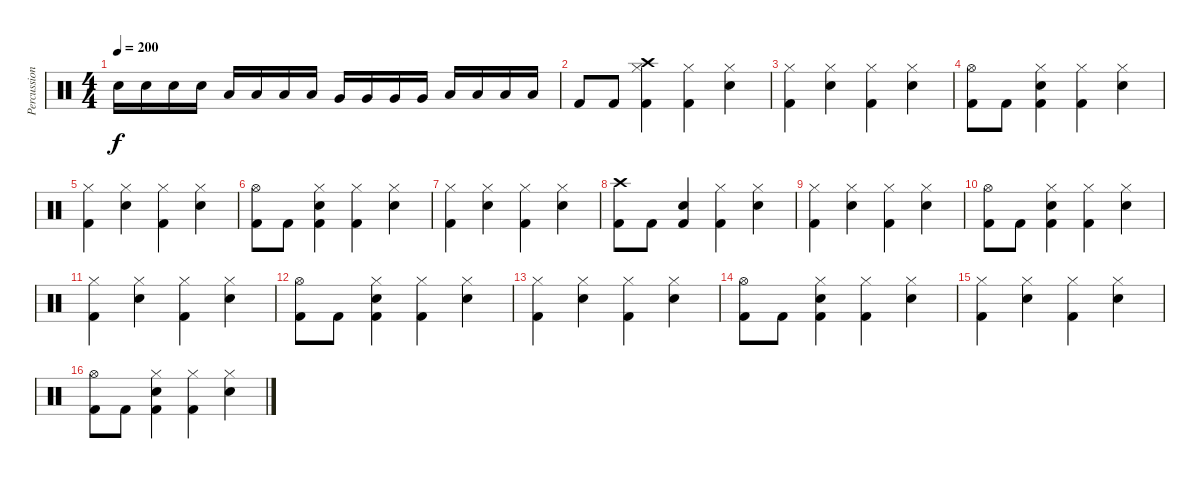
\track ("Percussion" "Percussion") {instrument percussion}
\staff {score}
\articulation defaults
\ts (4 4)
\tempo 200
\clef neutral
\ks c "Snare (hit) 2".16{dy f} "Snare (hit) 2".16 "Snare (hit) 2".16 "Snare (hit) 2".16 "Low Floor Tom (hit)".16 "Low Floor Tom (hit)".16 "Low Floor Tom (hit)".16 "Low Floor Tom (hit)".16 "Very Low Tom (hit)".16 "Very Low Tom (hit)".16 "Very Low Tom (hit)".16 "Very Low Tom (hit)".16 "Low Tom (hit)".16 "Low Tom (hit)".16 "Low Tom (hit)".16 "Low Tom (hit)".16
|
"Kick (hit) 2".8 "Kick (hit) 2".8 ("Crash high (hit)" "Hi-Hat (closed)" "Kick (hit) 2").4 ("Hi-Hat (closed)" "Kick (hit) 2").4 ("Hi-Hat (closed)" "Snare (hit) 2").4 |
("Hi-Hat (closed)" "Kick (hit) 2").4 ("Hi-Hat (closed)" "Snare (hit) 2").4 ("Hi-Hat (closed)" "Kick (hit) 2").4 ("Hi-Hat (closed)" "Snare (hit) 2").4 |
("Hi-Hat (open)" "Kick (hit) 2").8 "Kick (hit) 2".8 ("Hi-Hat (closed)" "Snare (hit) 2" "Kick (hit) 2").4 ("Hi-Hat (closed)" "Kick (hit) 2").4 ("Hi-Hat (closed)" "Snare (hit) 2").4 |
("Hi-Hat (closed)" "Kick (hit) 2").4 ("Hi-Hat (closed)" "Snare (hit) 2").4 ("Hi-Hat (closed)" "Kick (hit) 2").4 ("Hi-Hat (closed)" "Snare (hit) 2").4 |
("Hi-Hat (open)" "Kick (hit) 2").8 "Kick (hit) 2".8 ("Hi-Hat (closed)" "Snare (hit) 2" "Kick (hit) 2").4 ("Hi-Hat (closed)" "Kick (hit) 2").4 ("Hi-Hat (closed)" "Snare (hit) 2").4 |
("Hi-Hat (closed)" "Kick (hit) 2").4 ("Hi-Hat (closed)" "Snare (hit) 2").4 ("Hi-Hat (closed)" "Kick (hit) 2").4 ("Hi-Hat (closed)" "Snare (hit) 2").4 |
("Crash high (hit)" "Kick (hit) 2").8 "Kick (hit) 2".8 ("Snare (hit) 2" "Kick (hit) 2").4 ("Hi-Hat (closed)" "Kick (hit) 2").4 ("Hi-Hat (closed)" "Snare (hit) 2").4 |
("Hi-Hat (closed)" "Kick (hit) 2").4 ("Hi-Hat (closed)" "Snare (hit) 2").4 ("Hi-Hat (closed)" "Kick (hit) 2").4 ("Hi-Hat (closed)" "Snare (hit) 2").4 |
("Hi-Hat (open)" "Kick (hit) 2").8 "Kick (hit) 2".8 ("Hi-Hat (closed)" "Snare (hit) 2" "Kick (hit) 2").4 ("Hi-Hat (closed)" "Kick (hit) 2").4 ("Hi-Hat (closed)" "Snare (hit) 2").4 |
("Hi-Hat (closed)" "Kick (hit) 2").4 ("Hi-Hat (closed)" "Snare (hit) 2").4 ("Hi-Hat (closed)" "Kick (hit) 2").4 ("Hi-Hat (closed)" "Snare (hit) 2").4 |
("Hi-Hat (open)" "Kick (hit) 2").8 "Kick (hit) 2".8 ("Hi-Hat (closed)" "Snare (hit) 2" "Kick (hit) 2").4 ("Hi-Hat (closed)" "Kick (hit) 2").4 ("Hi-Hat (closed)" "Snare (hit) 2").4 |
("Hi-Hat (closed)" "Kick (hit) 2").4 ("Hi-Hat (closed)" "Snare (hit) 2").4 ("Hi-Hat (closed)" "Kick (hit) 2").4 ("Hi-Hat (closed)" "Snare (hit) 2").4 |
("Hi-Hat (open)" "Kick (hit) 2").8 "Kick (hit) 2".8 ("Hi-Hat (closed)" "Snare (hit) 2" "Kick (hit) 2").4 ("Hi-Hat (closed)" "Kick (hit) 2").4 ("Hi-Hat (closed)" "Snare (hit) 2").4 |
("Hi-Hat (closed)" "Kick (hit) 2").4 ("Hi-Hat (closed)" "Snare (hit) 2").4 ("Hi-Hat (closed)" "Kick (hit) 2").4 ("Hi-Hat (closed)" "Snare (hit) 2").4 |
("Hi-Hat (open)" "Kick (hit) 2").8 "Kick (hit) 2".8 ("Hi-Hat (closed)" "Snare (hit) 2" "Kick (hit) 2").4 ("Hi-Hat (closed)" "Kick (hit) 2").4 ("Hi-Hat (closed)" "Snare (hit) 2").4
